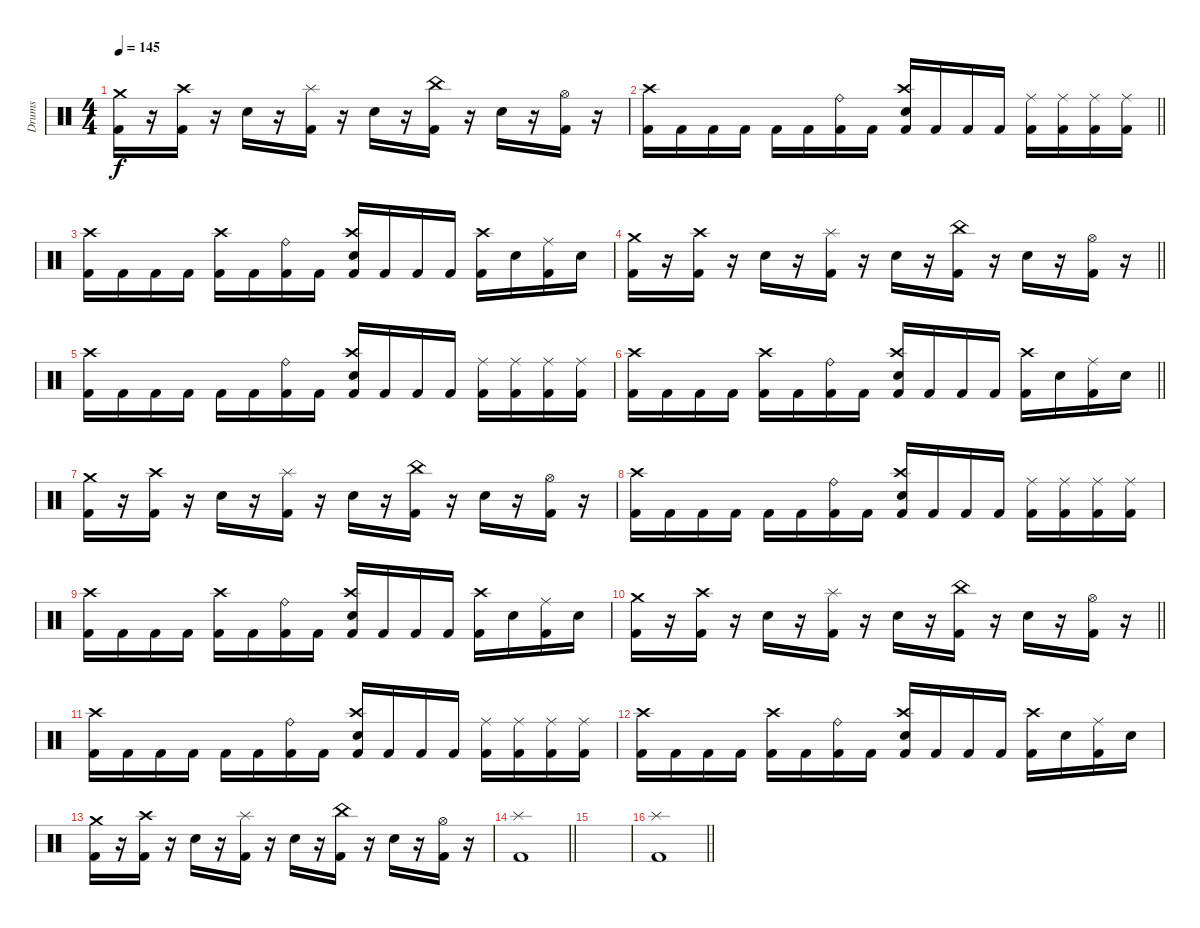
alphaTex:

\track ("Drums" "Drums") {mute instrument percussion}
\staff {score}
\articulation defaults
\ts (4 4)
\tempo 145
\clef neutral
\ks c
("Crash medium (hit)" "Kick (hit) 2").16{dy f} r.16 ("Crash high (hit)" "Kick (hit) 2").16 r.16 "Electric Snare (hit)".16 r.16 ("Splash (hit)" "Kick (hit) 2").16 r.16 "Electric Snare (hit)".16 r.16 ("China (hit)" "Kick (hit) 2").16 r.16 "Electric Snare (hit)".16 r.16 ("Hi-Hat (open)" "Kick (hit) 2").16 r.16 |
\barLineRight lightlight
("Crash high (hit)" "Kick (hit) 2").16 "Kick (hit) 2".16 "Kick (hit) 2".16 "Kick (hit) 2".16 "Kick (hit) 2".16 "Kick (hit) 2".16 ("Ride (bell)" "Kick (hit) 2").16 "Kick (hit) 2".16 ("Crash high (hit)" "Electric Snare (hit)" "Kick (hit) 2").16 "Kick (hit) 2".16 "Kick (hit) 2".16 "Kick (hit) 2".16 ("Ride (middle)" "Kick (hit) 2").16 ("Ride (middle)" "Kick (hit) 2").16 ("Ride (middle)" "Kick (hit) 2").16 ("Ride (middle)" "Kick (hit) 2").16 |
("Crash high (hit)" "Kick (hit) 2").16 "Kick (hit) 2".16 "Kick (hit) 2".16 "Kick (hit) 2".16 ("Crash high (hit)" "Kick (hit) 2").16 "Kick (hit) 2".16 ("Ride (bell)" "Kick (hit) 2").16 "Kick (hit) 2".16 ("Crash high (hit)" "Electric Snare (hit)" "Kick (hit) 2").16 "Kick (hit) 2".16 "Kick (hit) 2".16 "Kick (hit) 2".16 ("Crash high (hit)" "Kick (hit) 2").16 "Electric Snare (hit)".16 ("Ride (middle)" "Kick (hit) 2").16 "Electric Snare (hit)".16 |
\barLineRight lightlight
("Crash medium (hit)" "Kick (hit) 2").16 r.16 ("Crash high (hit)" "Kick (hit) 2").16 r.16 "Electric Snare (hit)".16 r.16 ("Splash (hit)" "Kick (hit) 2").16 r.16 "Electric Snare (hit)".16 r.16 ("China (hit)" "Kick (hit) 2").16 r.16 "Electric Snare (hit)".16 r.16 ("Hi-Hat (open)" "Kick (hit) 2").16 r.16 |
("Crash high (hit)" "Kick (hit) 2").16 "Kick (hit) 2".16 "Kick (hit) 2".16 "Kick (hit) 2".16 "Kick (hit) 2".16 "Kick (hit) 2".16 ("Ride (bell)" "Kick (hit) 2").16 "Kick (hit) 2".16 ("Crash high (hit)" "Electric Snare (hit)" "Kick (hit) 2").16 "Kick (hit) 2".16 "Kick (hit) 2".16 "Kick (hit) 2".16 ("Ride (middle)" "Kick (hit) 2").16 ("Ride (middle)" "Kick (hit) 2").16 ("Ride (middle)" "Kick (hit) 2").16 ("Ride (middle)" "Kick (hit) 2").16 |
\barLineRight lightlight
("Crash high (hit)" "Kick (hit) 2").16 "Kick (hit) 2".16 "Kick (hit) 2".16 "Kick (hit) 2".16 ("Crash high (hit)" "Kick (hit) 2").16 "Kick (hit) 2".16 ("Ride (bell)" "Kick (hit) 2").16 "Kick (hit) 2".16 ("Crash high (hit)" "Electric Snare (hit)" "Kick (hit) 2").16 "Kick (hit) 2".16 "Kick (hit) 2".16 "Kick (hit) 2".16 ("Crash high (hit)" "Kick (hit) 2").16 "Electric Snare (hit)".16 ("Ride (middle)" "Kick (hit) 2").16 "Electric Snare (hit)".16 |
("Crash medium (hit)" "Kick (hit) 2").16 r.16 ("Crash high (hit)" "Kick (hit) 2").16 r.16 "Electric Snare (hit)".16 r.16 ("Splash (hit)" "Kick (hit) 2").16 r.16 "Electric Snare (hit)".16 r.16 ("China (hit)" "Kick (hit) 2").16 r.16 "Electric Snare (hit)".16 r.16 ("Hi-Hat (open)" "Kick (hit) 2").16 r.16 |
("Crash high (hit)" "Kick (hit) 2").16 "Kick (hit) 2".16 "Kick (hit) 2".16 "Kick (hit) 2".16 "Kick (hit) 2".16 "Kick (hit) 2".16 ("Ride (bell)" "Kick (hit) 2").16 "Kick (hit) 2".16 ("Crash high (hit)" "Electric Snare (hit)" "Kick (hit) 2").16 "Kick (hit) 2".16 "Kick (hit) 2".16 "Kick (hit) 2".16 ("Ride (middle)" "Kick (hit) 2").16 ("Ride (middle)" "Kick (hit) 2").16 ("Ride (middle)" "Kick (hit) 2").16 ("Ride (middle)" "Kick (hit) 2").16 |
("Crash high (hit)" "Kick (hit) 2").16 "Kick (hit) 2".16 "Kick (hit) 2".16 "Kick (hit) 2".16 ("Crash high (hit)" "Kick (hit) 2").16 "Kick (hit) 2".16 ("Ride (bell)" "Kick (hit) 2").16 "Kick (hit) 2".16 ("Crash high (hit)" "Electric Snare (hit)" "Kick (hit) 2").16 "Kick (hit) 2".16 "Kick (hit) 2".16 "Kick (hit) 2".16 ("Crash high (hit)" "Kick (hit) 2").16 "Electric Snare (hit)".16 ("Ride (middle)" "Kick (hit) 2").16 "Electric Snare (hit)".16 |
\barLineRight lightlight
("Crash medium (hit)" "Kick (hit) 2").16 r.16 ("Crash high (hit)" "Kick (hit) 2").16 r.16 "Electric Snare (hit)".16 r.16 ("Splash (hit)" "Kick (hit) 2").16 r.16 "Electric Snare (hit)".16 r.16 ("China (hit)" "Kick (hit) 2").16 r.16 "Electric Snare (hit)".16 r.16 ("Hi-Hat (open)" "Kick (hit) 2").16 r.16 |
("Crash high (hit)" "Kick (hit) 2").16 "Kick (hit) 2".16 "Kick (hit) 2".16 "Kick (hit) 2".16 "Kick (hit) 2".16 "Kick (hit) 2".16 ("Ride (bell)" "Kick (hit) 2").16 "Kick (hit) 2".16 ("Crash high (hit)" "Electric Snare (hit)" "Kick (hit) 2").16 "Kick (hit) 2".16 "Kick (hit) 2".16 "Kick (hit) 2".16 ("Ride (middle)" "Kick (hit) 2").16 ("Ride (middle)" "Kick (hit) 2").16 ("Ride (middle)" "Kick (hit) 2").16 ("Ride (middle)" "Kick (hit) 2").16 |
("Crash high (hit)" "Kick (hit) 2").16 "Kick (hit) 2".16 "Kick (hit) 2".16 "Kick (hit) 2".16 ("Crash high (hit)" "Kick (hit) 2").16 "Kick (hit) 2".16 ("Ride (bell)" "Kick (hit) 2").16 "Kick (hit) 2".16 ("Crash high (hit)" "Electric Snare (hit)" "Kick (hit) 2").16 "Kick (hit) 2".16 "Kick (hit) 2".16 "Kick (hit) 2".16 ("Crash high (hit)" "Kick (hit) 2").16 "Electric Snare (hit)".16 ("Ride (middle)" "Kick (hit) 2").16 "Electric Snare (hit)".16 |
("Crash medium (hit)" "Kick (hit) 2").16 r.16 ("Crash high (hit)" "Kick (hit) 2").16 r.16 "Electric Snare (hit)".16 r.16 ("Splash (hit)" "Kick (hit) 2").16 r.16 "Electric Snare (hit)".16 r.16 ("China (hit)" "Kick (hit) 2").16 r.16 "Electric Snare (hit)".16 r.16 ("Hi-Hat (open)" "Kick (hit) 2").16 r.16 |
\barLineRight lightlight
("Splash (hit)" "Kick (hit) 2").1 |
|
\barLineRight lightlight
("Splash (hit)" "Kick (hit) 2").1
